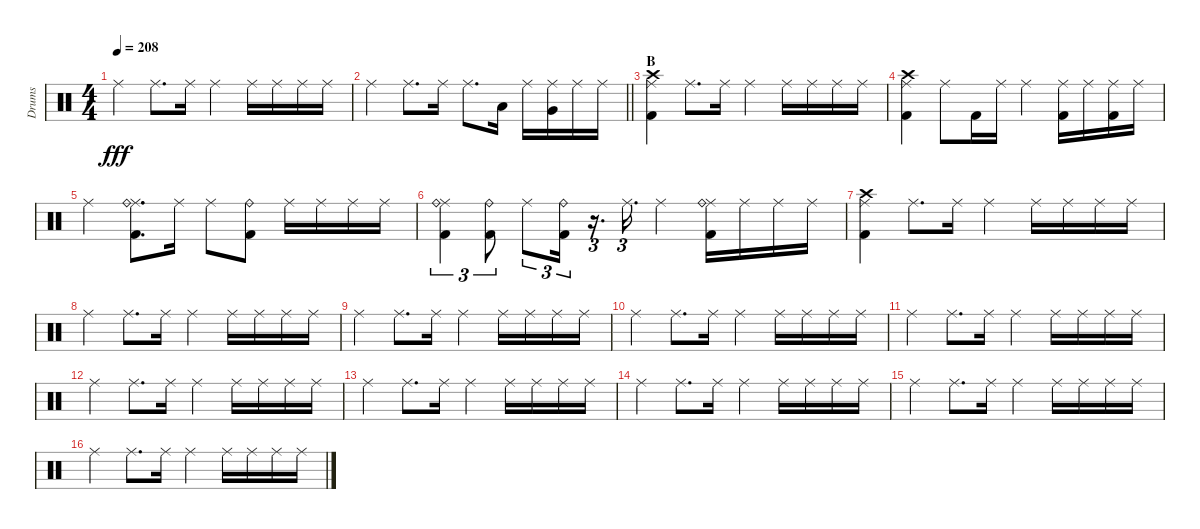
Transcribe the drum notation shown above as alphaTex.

\track ("Drums" "Drums") {instrument percussion}
\staff {score}
\articulation defaults
\ts (4 4)
\tempo 208
\clef neutral
\ks c "Ride (middle)".4{dy fff} "Ride (middle)".8{d} "Ride (middle)".16 "Ride (middle)".4 "Ride (middle)".16 "Ride (middle)".16 "Ride (middle)".16 "Ride (middle)".16
|
\barLineRight lightlight "Ride (middle)".4 "Ride (middle)".8{d} "Ride (middle)".16 "Ride (middle)".8{d} "Low Tom (hit)".16 "Ride (middle)".16
("Ride (middle)" "Very Low Tom (hit)").16 "Ride (middle)".16 "Ride (middle)".16 |
\section ("" "B")
("Ride (middle)" "Crash high (hit)" "Kick (hit) 2").4 "Ride (middle)".8{d} "Ride (middle)".16 "Ride (middle)".4 "Ride (middle)".16 "Ride (middle)".16 "Ride (middle)".16 "Ride (middle)".16 |
("Ride (middle)" "Crash high (hit)" "Kick (hit) 2").4 "Ride (middle)".8 "Kick (hit) 2".16 "Ride (middle)".16 "Ride (middle)".4 ("Ride (middle)" "Kick (hit) 2").16 "Ride (middle)".16 ("Ride (middle)" "Kick (hit) 2").16 "Ride (middle)".16 |
"Ride (middle)".4 ("Ride (middle)" "Ride (bell)" "Kick (hit) 2").8{d} "Ride (middle)".16 "Ride (middle)".8 ("Ride (bell)" "Kick (hit) 2").8 "Ride (middle)".16 "Ride (middle)".16 "Ride (middle)".16 "Ride (middle)".16 |
("Ride (middle)" "Ride (bell)" "Kick (hit) 2").4{tu (3 2)} ("Ride (bell)" "Kick (hit) 2").8{tu (3 2)} "Ride (middle)".8{tu (3 2)} ("Ride (bell)" "Kick (hit) 2").16{tu (3 2)} r.16{d tu (3 2)} "Ride (middle)".16{d tu (3 2)} "Ride (middle)".4 ("Ride (middle)" "Ride (bell)" "Kick (hit) 2").16 "Ride (middle)".16 "Ride (middle)".16 "Ride (middle)".16 |
("Ride (middle)" "Crash high (hit)" "Kick (hit) 2").4 "Ride (middle)".8{d} "Ride (middle)".16 "Ride (middle)".4 "Ride (middle)".16 "Ride (middle)".16 "Ride (middle)".16 "Ride (middle)".16 |
"Ride (middle)".4 "Ride (middle)".8{d} "Ride (middle)".16 "Ride (middle)".4 "Ride (middle)".16 "Ride (middle)".16 "Ride (middle)".16 "Ride (middle)".16 |
"Ride (middle)".4 "Ride (middle)".8{d} "Ride (middle)".16 "Ride (middle)".4 "Ride (middle)".16 "Ride (middle)".16 "Ride (middle)".16 "Ride (middle)".16 |
"Ride (middle)".4 "Ride (middle)".8{d} "Ride (middle)".16 "Ride (middle)".4 "Ride (middle)".16 "Ride (middle)".16 "Ride (middle)".16 "Ride (middle)".16 |
"Ride (middle)".4 "Ride (middle)".8{d} "Ride (middle)".16 "Ride (middle)".4 "Ride (middle)".16 "Ride (middle)".16 "Ride (middle)".16 "Ride (middle)".16 |
"Ride (middle)".4 "Ride (middle)".8{d} "Ride (middle)".16 "Ride (middle)".4 "Ride (middle)".16 "Ride (middle)".16 "Ride (middle)".16 "Ride (middle)".16 |
"Ride (middle)".4 "Ride (middle)".8{d} "Ride (middle)".16 "Ride (middle)".4 "Ride (middle)".16 "Ride (middle)".16 "Ride (middle)".16 "Ride (middle)".16 |
"Ride (middle)".4 "Ride (middle)".8{d} "Ride (middle)".16 "Ride (middle)".4 "Ride (middle)".16 "Ride (middle)".16 "Ride (middle)".16 "Ride (middle)".16 |
"Ride (middle)".4 "Ride (middle)".8{d} "Ride (middle)".16 "Ride (middle)".4 "Ride (middle)".16 "Ride (middle)".16 "Ride (middle)".16 "Ride (middle)".16 |
"Ride (middle)".4 "Ride (middle)".8{d} "Ride (middle)".16 "Ride (middle)".4 "Ride (middle)".16 "Ride (middle)".16 "Ride (middle)".16 "Ride (middle)".16
